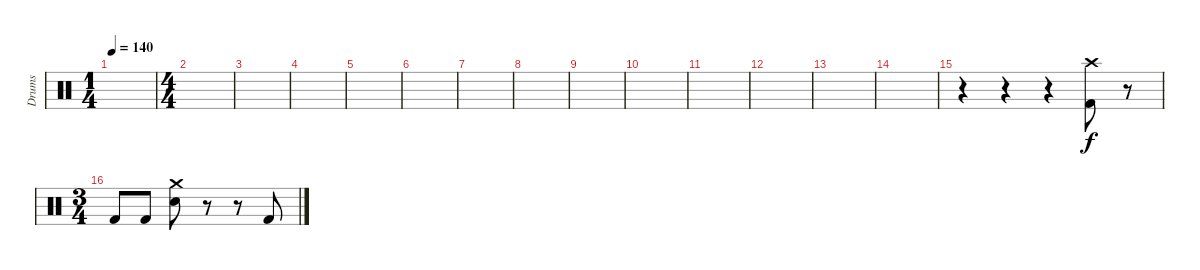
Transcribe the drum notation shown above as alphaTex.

\track ("Drums" "Drums") {instrument percussion}
\staff {score}
\articulation defaults
\ts (1 4)
\tempo 140
\clef neutral
\ks c
|
\ts (4 4)
|
|
|
|
|
|
|
|
|
|
|
|
|
r.4 r.4 r.4 ("Crash high (hit)" "Kick (hit) 2").8 r.8 |
\ts (3 4)
"Kick (hit) 2".8 "Kick (hit) 2".8 ("Crash medium (hit)" "Snare (hit) 2").8 r.8 r.8 "Kick (hit) 2".8
